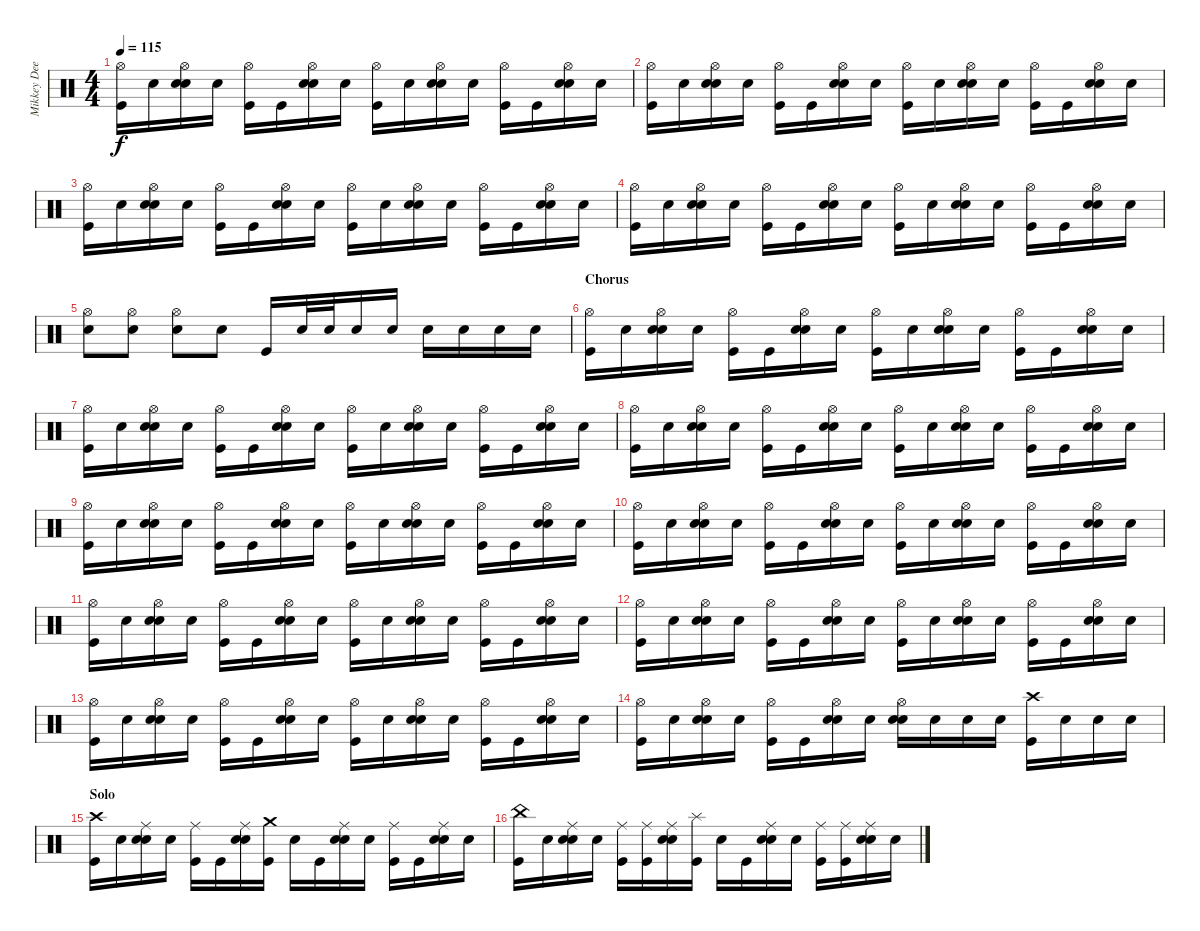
\track ("Mikkey Dee" "Mikkey Dee") {instrument percussion}
\staff {score}
\articulation defaults
\ts (4 4)
\tempo 115
\clef neutral
\ks c
("Hi-Hat (open)" "Kick (hit)").16{dy f} "Snare (hit)".16 ("Hi-Hat (open)" "Electric Snare (hit)" "Snare (hit)").16 "Snare (hit)".16 ("Hi-Hat (open)" "Kick (hit)").16 "Kick (hit)".16 ("Hi-Hat (open)" "Electric Snare (hit)" "Snare (hit)").16 "Snare (hit)".16 ("Hi-Hat (open)" "Kick (hit)").16 "Snare (hit)".16 ("Hi-Hat (open)" "Electric Snare (hit)" "Snare (hit)").16 "Snare (hit)".16 ("Hi-Hat (open)" "Kick (hit)").16 "Kick (hit)".16 ("Hi-Hat (open)" "Electric Snare (hit)" "Snare (hit)").16 "Snare (hit)".16 |
("Hi-Hat (open)" "Kick (hit)").16 "Snare (hit)".16 ("Hi-Hat (open)" "Electric Snare (hit)" "Snare (hit)").16 "Snare (hit)".16 ("Hi-Hat (open)" "Kick (hit)").16 "Kick (hit)".16 ("Hi-Hat (open)" "Electric Snare (hit)" "Snare (hit)").16 "Snare (hit)".16 ("Hi-Hat (open)" "Kick (hit)").16 "Snare (hit)".16 ("Hi-Hat (open)" "Electric Snare (hit)" "Snare (hit)").16 "Snare (hit)".16 ("Hi-Hat (open)" "Kick (hit)").16 "Kick (hit)".16 ("Hi-Hat (open)" "Electric Snare (hit)" "Snare (hit)").16 "Snare (hit)".16 |
("Hi-Hat (open)" "Kick (hit)").16 "Snare (hit)".16 ("Hi-Hat (open)" "Electric Snare (hit)" "Snare (hit)").16 "Snare (hit)".16 ("Hi-Hat (open)" "Kick (hit)").16 "Kick (hit)".16 ("Hi-Hat (open)" "Electric Snare (hit)" "Snare (hit)").16 "Snare (hit)".16 ("Hi-Hat (open)" "Kick (hit)").16 "Snare (hit)".16 ("Hi-Hat (open)" "Electric Snare (hit)" "Snare (hit)").16 "Snare (hit)".16 ("Hi-Hat (open)" "Kick (hit)").16 "Kick (hit)".16 ("Hi-Hat (open)" "Electric Snare (hit)" "Snare (hit)").16 "Snare (hit)".16 |
("Hi-Hat (open)" "Kick (hit)").16 "Snare (hit)".16 ("Hi-Hat (open)" "Electric Snare (hit)" "Snare (hit)").16 "Snare (hit)".16 ("Hi-Hat (open)" "Kick (hit)").16 "Kick (hit)".16 ("Hi-Hat (open)" "Electric Snare (hit)" "Snare (hit)").16 "Snare (hit)".16 ("Hi-Hat (open)" "Kick (hit)").16 "Snare (hit)".16 ("Hi-Hat (open)" "Electric Snare (hit)" "Snare (hit)").16 "Snare (hit)".16 ("Hi-Hat (open)" "Kick (hit)").16 "Kick (hit)".16 ("Hi-Hat (open)" "Electric Snare (hit)" "Snare (hit)").16 "Snare (hit)".16 |
("Hi-Hat (open)" "Electric Snare (hit)").8 ("Hi-Hat (open)" "Electric Snare (hit)").8 ("Hi-Hat (open)" "Electric Snare (hit)").8 "Snare (hit)".8 "Kick (hit)".16 "Electric Snare (hit)".32 "Electric Snare (hit)".32 "Electric Snare (hit)".16 "Electric Snare (hit)".16 "Electric Snare (hit)".16 "Electric Snare (hit)".16 "Electric Snare (hit)".16 "Electric Snare (hit)".16 |
\section ("" "Chorus")
("Hi-Hat (open)" "Kick (hit)").16 "Snare (hit)".16 ("Hi-Hat (open)" "Electric Snare (hit)" "Snare (hit)").16 "Snare (hit)".16 ("Hi-Hat (open)" "Kick (hit)").16 "Kick (hit)".16 ("Hi-Hat (open)" "Electric Snare (hit)" "Snare (hit)").16 "Snare (hit)".16 ("Hi-Hat (open)" "Kick (hit)").16 "Snare (hit)".16 ("Hi-Hat (open)" "Electric Snare (hit)" "Snare (hit)").16 "Snare (hit)".16 ("Hi-Hat (open)" "Kick (hit)").16 "Kick (hit)".16 ("Hi-Hat (open)" "Electric Snare (hit)" "Snare (hit)").16 "Snare (hit)".16 |
("Hi-Hat (open)" "Kick (hit)").16 "Snare (hit)".16 ("Hi-Hat (open)" "Electric Snare (hit)" "Snare (hit)").16 "Snare (hit)".16 ("Hi-Hat (open)" "Kick (hit)").16 "Kick (hit)".16 ("Hi-Hat (open)" "Electric Snare (hit)" "Snare (hit)").16 "Snare (hit)".16 ("Hi-Hat (open)" "Kick (hit)").16 "Snare (hit)".16 ("Hi-Hat (open)" "Electric Snare (hit)" "Snare (hit)").16 "Snare (hit)".16 ("Hi-Hat (open)" "Kick (hit)").16 "Kick (hit)".16 ("Hi-Hat (open)" "Electric Snare (hit)" "Snare (hit)").16 "Snare (hit)".16 |
("Hi-Hat (open)" "Kick (hit)").16 "Snare (hit)".16 ("Hi-Hat (open)" "Electric Snare (hit)" "Snare (hit)").16 "Snare (hit)".16 ("Hi-Hat (open)" "Kick (hit)").16 "Kick (hit)".16 ("Hi-Hat (open)" "Electric Snare (hit)" "Snare (hit)").16 "Snare (hit)".16 ("Hi-Hat (open)" "Kick (hit)").16 "Snare (hit)".16 ("Hi-Hat (open)" "Electric Snare (hit)" "Snare (hit)").16 "Snare (hit)".16 ("Hi-Hat (open)" "Kick (hit)").16 "Kick (hit)".16 ("Hi-Hat (open)" "Electric Snare (hit)" "Snare (hit)").16 "Snare (hit)".16 |
("Hi-Hat (open)" "Kick (hit)").16 "Snare (hit)".16 ("Hi-Hat (open)" "Electric Snare (hit)" "Snare (hit)").16 "Snare (hit)".16 ("Hi-Hat (open)" "Kick (hit)").16 "Kick (hit)".16 ("Hi-Hat (open)" "Electric Snare (hit)" "Snare (hit)").16 "Snare (hit)".16 ("Hi-Hat (open)" "Kick (hit)").16 "Snare (hit)".16 ("Hi-Hat (open)" "Electric Snare (hit)" "Snare (hit)").16 "Snare (hit)".16 ("Hi-Hat (open)" "Kick (hit)").16 "Kick (hit)".16 ("Hi-Hat (open)" "Electric Snare (hit)" "Snare (hit)").16 "Snare (hit)".16 |
("Hi-Hat (open)" "Kick (hit)").16 "Snare (hit)".16 ("Hi-Hat (open)" "Electric Snare (hit)" "Snare (hit)").16 "Snare (hit)".16 ("Hi-Hat (open)" "Kick (hit)").16 "Kick (hit)".16 ("Hi-Hat (open)" "Electric Snare (hit)" "Snare (hit)").16 "Snare (hit)".16 ("Hi-Hat (open)" "Kick (hit)").16 "Snare (hit)".16 ("Hi-Hat (open)" "Electric Snare (hit)" "Snare (hit)").16 "Snare (hit)".16 ("Hi-Hat (open)" "Kick (hit)").16 "Kick (hit)".16 ("Hi-Hat (open)" "Electric Snare (hit)" "Snare (hit)").16 "Snare (hit)".16 |
("Hi-Hat (open)" "Kick (hit)").16 "Snare (hit)".16 ("Hi-Hat (open)" "Electric Snare (hit)" "Snare (hit)").16 "Snare (hit)".16 ("Hi-Hat (open)" "Kick (hit)").16 "Kick (hit)".16 ("Hi-Hat (open)" "Electric Snare (hit)" "Snare (hit)").16 "Snare (hit)".16 ("Hi-Hat (open)" "Kick (hit)").16 "Snare (hit)".16 ("Hi-Hat (open)" "Electric Snare (hit)" "Snare (hit)").16 "Snare (hit)".16 ("Hi-Hat (open)" "Kick (hit)").16 "Kick (hit)".16 ("Hi-Hat (open)" "Electric Snare (hit)" "Snare (hit)").16 "Snare (hit)".16 |
("Hi-Hat (open)" "Kick (hit)").16 "Snare (hit)".16 ("Hi-Hat (open)" "Electric Snare (hit)" "Snare (hit)").16 "Snare (hit)".16 ("Hi-Hat (open)" "Kick (hit)").16 "Kick (hit)".16 ("Hi-Hat (open)" "Electric Snare (hit)" "Snare (hit)").16 "Snare (hit)".16 ("Hi-Hat (open)" "Kick (hit)").16 "Snare (hit)".16 ("Hi-Hat (open)" "Electric Snare (hit)" "Snare (hit)").16 "Snare (hit)".16 ("Hi-Hat (open)" "Kick (hit)").16 "Kick (hit)".16 ("Hi-Hat (open)" "Electric Snare (hit)" "Snare (hit)").16 "Snare (hit)".16 |
("Hi-Hat (open)" "Kick (hit)").16 "Snare (hit)".16 ("Hi-Hat (open)" "Electric Snare (hit)" "Snare (hit)").16 "Snare (hit)".16 ("Hi-Hat (open)" "Kick (hit)").16 "Kick (hit)".16 ("Hi-Hat (open)" "Electric Snare (hit)" "Snare (hit)").16 "Snare (hit)".16 ("Hi-Hat (open)" "Kick (hit)").16 "Snare (hit)".16 ("Hi-Hat (open)" "Electric Snare (hit)" "Snare (hit)").16 "Snare (hit)".16 ("Hi-Hat (open)" "Kick (hit)").16 "Kick (hit)".16 ("Hi-Hat (open)" "Electric Snare (hit)" "Snare (hit)").16 "Snare (hit)".16 |
("Hi-Hat (open)" "Kick (hit)").16 "Snare (hit)".16 ("Hi-Hat (open)" "Electric Snare (hit)" "Snare (hit)").16 "Snare (hit)".16 ("Hi-Hat (open)" "Kick (hit)").16 "Kick (hit)".16 ("Hi-Hat (open)" "Electric Snare (hit)" "Snare (hit)").16 "Snare (hit)".16 ("Hi-Hat (open)" "Electric Snare (hit)" "Snare (hit)").16 "Snare (hit)".16 "Snare (hit)".16 "Snare (hit)".16 ("Crash high (hit)" "Kick (hit)").16 "Electric Snare (hit)".16 "Electric Snare (hit)".16 "Electric Snare (hit)".16 |
\section ("" "Solo")
("Crash high (hit)" "Kick (hit)").16 "Snare (hit)".16 ("Ride (middle)" "Electric Snare (hit)" "Snare (hit)").16 "Snare (hit)".16 ("Ride (middle)" "Kick (hit)").16 "Kick (hit)".16 ("Ride (middle)" "Electric Snare (hit)" "Snare (hit)").16 ("Crash medium (hit)" "Kick (hit)").16 "Snare (hit)".16 "Kick (hit)".16 ("Ride (middle)" "Electric Snare (hit)" "Snare (hit)").16 "Snare (hit)".16 ("Ride (middle)" "Kick (hit)").16 "Kick (hit)".16 ("Ride (middle)" "Electric Snare (hit)" "Snare (hit)").16 "Snare (hit)".16 |
("China (hit)" "Kick (hit)").16 "Snare (hit)".16 ("Ride (middle)" "Electric Snare (hit)" "Snare (hit)").16 "Snare (hit)".16 ("Ride (middle)" "Kick (hit)").16 ("Ride (middle)" "Kick (hit)").16 ("Ride (middle)" "Electric Snare (hit)" "Snare (hit)").16 ("Splash (hit)" "Kick (hit)").16 "Snare (hit)".16 "Kick (hit)".16 ("Ride (middle)" "Electric Snare (hit)" "Snare (hit)").16 "Snare (hit)".16 ("Ride (middle)" "Kick (hit)").16 ("Ride (middle)" "Kick (hit)").16 ("Ride (middle)" "Electric Snare (hit)" "Snare (hit)").16 "Snare (hit)".16
